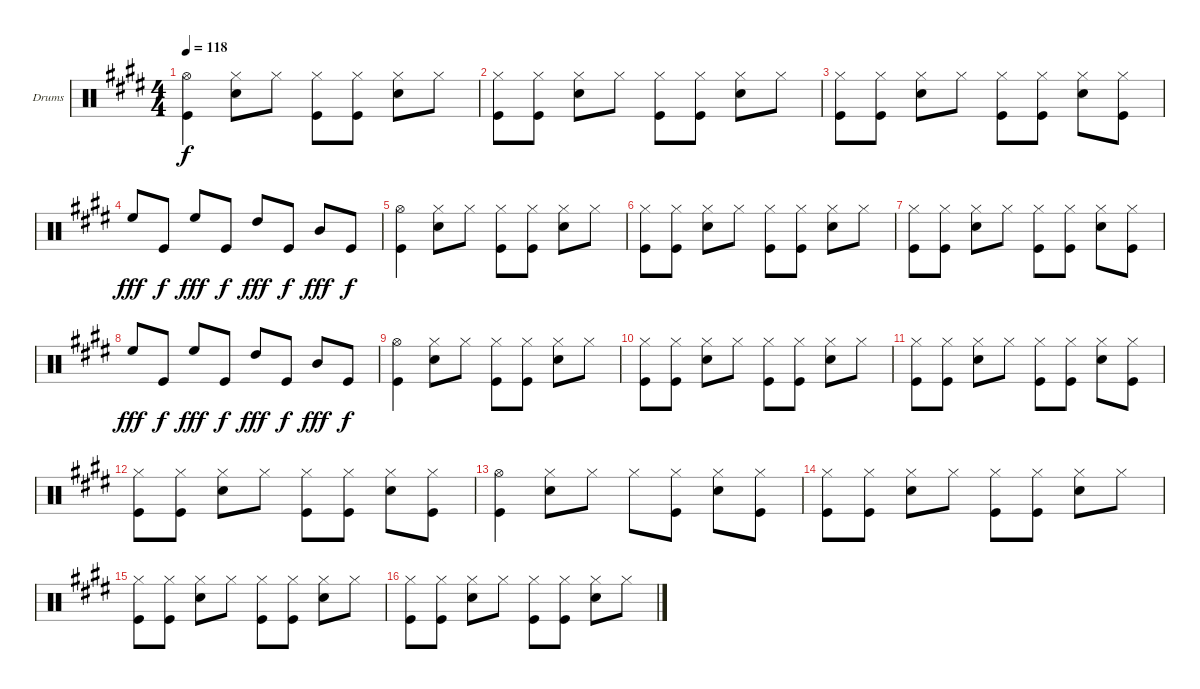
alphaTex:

\bracketExtendMode groupsimilarinstruments
\firstSystemTrackNameOrientation horizontal
\otherSystemsTrackNameOrientation horizontal
\track ("Drumkit" "Drums") {instrument percussion}
\staff {score}
\articulation defaults
\ts (4 4)
\tempo 118
\clef neutral
\ks e
("Hi-Hat (open)" "Kick (hit)").4{dy f} ("Hi-Hat (closed)" "Snare (hit) 2").8 "Hi-Hat (closed)".8 ("Hi-Hat (closed)" "Kick (hit)").8 ("Hi-Hat (closed)" "Kick (hit)").8 ("Hi-Hat (closed)" "Snare (hit) 2").8 "Hi-Hat (closed)".8 |
("Hi-Hat (closed)" "Kick (hit)").8 ("Hi-Hat (closed)" "Kick (hit)").8 ("Hi-Hat (closed)" "Snare (hit) 2").8 "Hi-Hat (closed)".8 ("Hi-Hat (closed)" "Kick (hit)").8 ("Hi-Hat (closed)" "Kick (hit)").8 ("Hi-Hat (closed)" "Snare (hit) 2").8 "Hi-Hat (closed)".8 |
("Hi-Hat (closed)" "Kick (hit)").8 ("Hi-Hat (closed)" "Kick (hit)").8 ("Hi-Hat (closed)" "Snare (hit) 2").8 "Hi-Hat (closed)".8 ("Hi-Hat (closed)" "Kick (hit)").8 ("Hi-Hat (closed)" "Kick (hit)").8 ("Hi-Hat (closed)" "Snare (hit) 2").8 ("Hi-Hat (closed)" "Kick (hit)").8 |
"High Floor Tom (hit)".8{dy fff} "Kick (hit)".8{dy f} "High Floor Tom (hit)".8{dy fff} "Kick (hit)".8{dy f} "High Tom (hit)".8{dy fff} "Kick (hit)".8{dy f} "Mid Tom (hit)".8{dy fff} "Kick (hit)".8{dy f} |
("Hi-Hat (open)" "Kick (hit)").4 ("Hi-Hat (closed)" "Snare (hit) 2").8 "Hi-Hat (closed)".8 ("Hi-Hat (closed)" "Kick (hit)").8 ("Hi-Hat (closed)" "Kick (hit)").8 ("Hi-Hat (closed)" "Snare (hit) 2").8 "Hi-Hat (closed)".8 |
("Hi-Hat (closed)" "Kick (hit)").8 ("Hi-Hat (closed)" "Kick (hit)").8 ("Hi-Hat (closed)" "Snare (hit) 2").8 "Hi-Hat (closed)".8 ("Hi-Hat (closed)" "Kick (hit)").8 ("Hi-Hat (closed)" "Kick (hit)").8 ("Hi-Hat (closed)" "Snare (hit) 2").8 "Hi-Hat (closed)".8 |
("Hi-Hat (closed)" "Kick (hit)").8 ("Hi-Hat (closed)" "Kick (hit)").8 ("Hi-Hat (closed)" "Snare (hit) 2").8 "Hi-Hat (closed)".8 ("Hi-Hat (closed)" "Kick (hit)").8 ("Hi-Hat (closed)" "Kick (hit)").8 ("Hi-Hat (closed)" "Snare (hit) 2").8 ("Hi-Hat (closed)" "Kick (hit)").8 |
"High Floor Tom (hit)".8{dy fff} "Kick (hit)".8{dy f} "High Floor Tom (hit)".8{dy fff} "Kick (hit)".8{dy f} "High Tom (hit)".8{dy fff} "Kick (hit)".8{dy f} "Mid Tom (hit)".8{dy fff} "Kick (hit)".8{dy f} |
("Hi-Hat (open)" "Kick (hit)").4 ("Hi-Hat (closed)" "Snare (hit) 2").8 "Hi-Hat (closed)".8 ("Hi-Hat (closed)" "Kick (hit)").8 ("Hi-Hat (closed)" "Kick (hit)").8 ("Hi-Hat (closed)" "Snare (hit) 2").8 "Hi-Hat (closed)".8 |
("Hi-Hat (closed)" "Kick (hit)").8 ("Hi-Hat (closed)" "Kick (hit)").8 ("Hi-Hat (closed)" "Snare (hit) 2").8 "Hi-Hat (closed)".8 ("Hi-Hat (closed)" "Kick (hit)").8 ("Hi-Hat (closed)" "Kick (hit)").8 ("Hi-Hat (closed)" "Snare (hit) 2").8 "Hi-Hat (closed)".8 |
("Hi-Hat (closed)" "Kick (hit)").8 ("Hi-Hat (closed)" "Kick (hit)").8 ("Hi-Hat (closed)" "Snare (hit) 2").8 "Hi-Hat (closed)".8 ("Hi-Hat (closed)" "Kick (hit)").8 ("Hi-Hat (closed)" "Kick (hit)").8 ("Hi-Hat (closed)" "Snare (hit) 2").8 ("Hi-Hat (closed)" "Kick (hit)").8 |
("Hi-Hat (closed)" "Kick (hit)").8 ("Hi-Hat (closed)" "Kick (hit)").8 ("Hi-Hat (closed)" "Snare (hit) 2").8 "Hi-Hat (closed)".8 ("Hi-Hat (closed)" "Kick (hit)").8 ("Hi-Hat (closed)" "Kick (hit)").8 ("Hi-Hat (closed)" "Snare (hit) 2").8 ("Hi-Hat (closed)" "Kick (hit)").8 |
("Hi-Hat (open)" "Kick (hit)").4 ("Hi-Hat (closed)" "Snare (hit) 2").8 "Hi-Hat (closed)".8 "Hi-Hat (closed)".8 ("Hi-Hat (closed)" "Kick (hit)").8 ("Hi-Hat (closed)" "Snare (hit) 2").8 ("Hi-Hat (closed)" "Kick (hit)").8 |
("Hi-Hat (closed)" "Kick (hit)").8 ("Hi-Hat (closed)" "Kick (hit)").8 ("Hi-Hat (closed)" "Snare (hit) 2").8 "Hi-Hat (closed)".8 ("Hi-Hat (closed)" "Kick (hit)").8 ("Hi-Hat (closed)" "Kick (hit)").8 ("Hi-Hat (closed)" "Snare (hit) 2").8 "Hi-Hat (closed)".8 |
("Hi-Hat (closed)" "Kick (hit)").8 ("Hi-Hat (closed)" "Kick (hit)").8 ("Hi-Hat (closed)" "Snare (hit) 2").8 "Hi-Hat (closed)".8 ("Hi-Hat (closed)" "Kick (hit)").8 ("Hi-Hat (closed)" "Kick (hit)").8 ("Hi-Hat (closed)" "Snare (hit) 2").8 "Hi-Hat (closed)".8 |
("Hi-Hat (closed)" "Kick (hit)").8 ("Hi-Hat (closed)" "Kick (hit)").8 ("Hi-Hat (closed)" "Snare (hit) 2").8 "Hi-Hat (closed)".8 ("Hi-Hat (closed)" "Kick (hit)").8 ("Hi-Hat (closed)" "Kick (hit)").8 ("Hi-Hat (closed)" "Snare (hit) 2").8 "Hi-Hat (closed)".8
